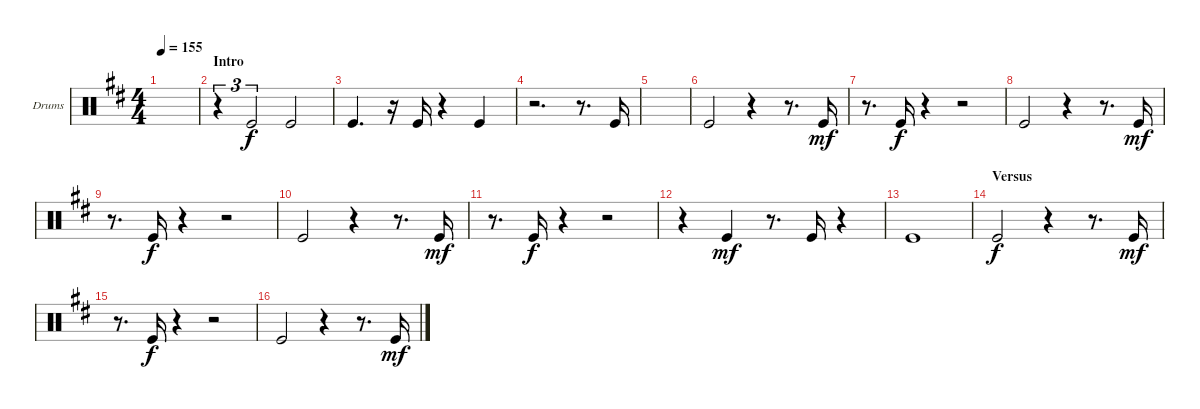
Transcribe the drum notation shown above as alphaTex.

\bracketExtendMode groupsimilarinstruments
\firstSystemTrackNameOrientation horizontal
\otherSystemsTrackNameOrientation horizontal
\track ("Kick" "Drums") {instrument percussion}
\staff {score}
\articulation defaults
\ts (4 4)
\tempo 155
\clef neutral
\ks d
|
\section ("" "Intro")
r.4{tu (3 2)} "Kick (hit)".2{tu (3 2)} "Kick (hit)".2 |
"Kick (hit)".4{d} r.16 "Kick (hit)".16 r.4 "Kick (hit)".4 |
r.2{d} r.8{d} "Kick (hit)".16{dy f} |
|
"Kick (hit)".2 r.4 r.8{d} "Kick (hit)".16{dy mf} |
r.8{d} "Kick (hit)".16{dy f} r.4 r.2 |
"Kick (hit)".2 r.4 r.8{d} "Kick (hit)".16{dy mf} |
r.8{d} "Kick (hit)".16{dy f} r.4 r.2 |
"Kick (hit)".2 r.4 r.8{d} "Kick (hit)".16{dy mf} |
r.8{d} "Kick (hit)".16{dy f} r.4 r.2 |
r.4 "Kick (hit)".4{dy mf} r.8{d} "Kick (hit)".16 r.4 |
"Kick (hit)".1 |
\section ("" "Versus")
"Kick (hit)".2{dy f} r.4 r.8{d} "Kick (hit)".16{dy mf} |
r.8{d} "Kick (hit)".16{dy f} r.4 r.2 |
"Kick (hit)".2 r.4 r.8{d} "Kick (hit)".16{dy mf}
